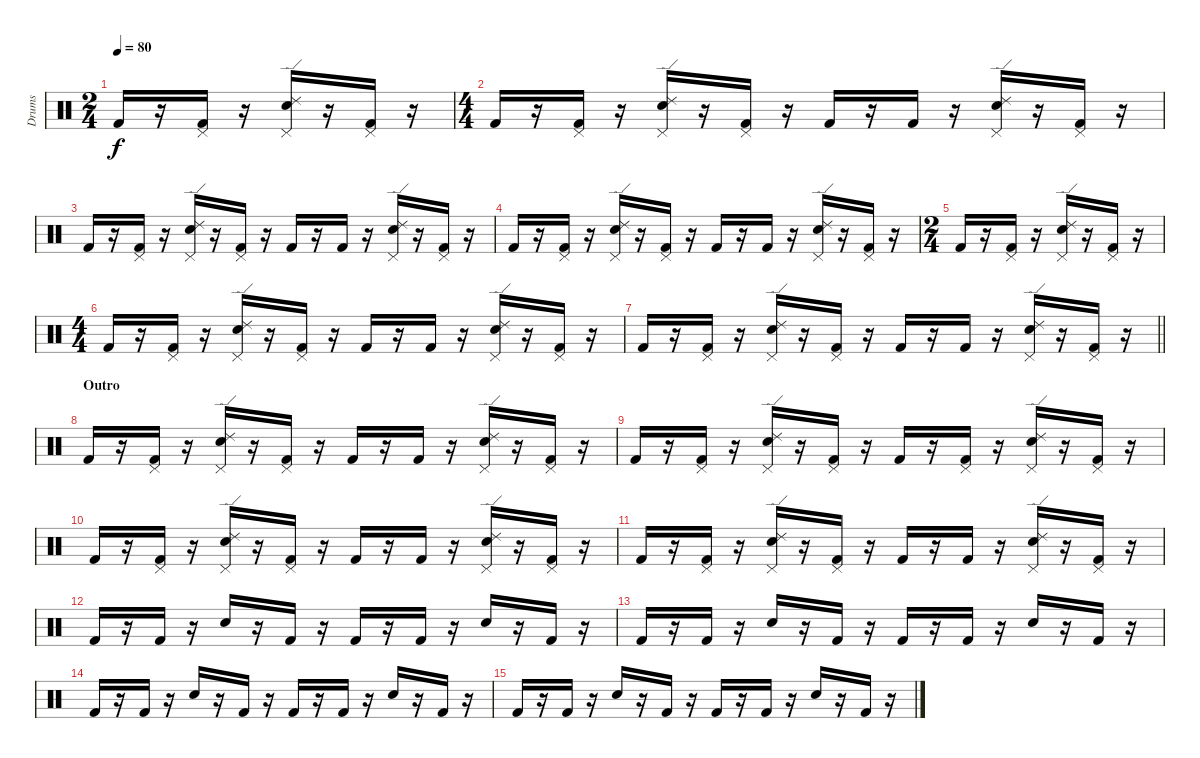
\track ("Drums" "Drums") {instrument percussion}
\staff {score}
\articulation defaults
\ts (2 4)
\tempo 80
\clef neutral
\ks c "Kick (hit) 2".16{dy f}
r.16 ("Pedal Hi-Hat (hit)" "Kick (hit) 2").16 r.16 ("Ride (edge) 2" "Pedal Hi-Hat (hit)" "Snare (hit) 2").16 r.16 ("Pedal Hi-Hat (hit)" "Kick (hit) 2").16 r.16 |
\ts (4 4)
"Kick (hit) 2".16 r.16 ("Pedal Hi-Hat (hit)" "Kick (hit) 2").16 r.16 ("Ride (edge) 2" "Pedal Hi-Hat (hit)" "Snare (hit) 2").16 r.16 ("Pedal Hi-Hat (hit)" "Kick (hit) 2").16 r.16 "Kick (hit) 2".16 r.16 "Kick (hit) 2".16 r.16 ("Ride (edge) 2" "Pedal Hi-Hat (hit)" "Snare (hit) 2").16 r.16 ("Pedal Hi-Hat (hit)" "Kick (hit) 2").16 r.16 |
"Kick (hit) 2".16 r.16 ("Pedal Hi-Hat (hit)" "Kick (hit) 2").16 r.16 ("Ride (edge) 2" "Pedal Hi-Hat (hit)" "Snare (hit) 2").16 r.16 ("Pedal Hi-Hat (hit)" "Kick (hit) 2").16 r.16 "Kick (hit) 2".16 r.16 "Kick (hit) 2".16 r.16 ("Ride (edge) 2" "Pedal Hi-Hat (hit)" "Snare (hit) 2").16 r.16 ("Pedal Hi-Hat (hit)" "Kick (hit) 2").16 r.16 |
"Kick (hit) 2".16 r.16 ("Pedal Hi-Hat (hit)" "Kick (hit) 2").16 r.16 ("Ride (edge) 2" "Pedal Hi-Hat (hit)" "Snare (hit) 2").16 r.16 ("Pedal Hi-Hat (hit)" "Kick (hit) 2").16 r.16 "Kick (hit) 2".16 r.16 "Kick (hit) 2".16 r.16 ("Ride (edge) 2" "Pedal Hi-Hat (hit)" "Snare (hit) 2").16 r.16 ("Pedal Hi-Hat (hit)" "Kick (hit) 2").16 r.16 |
\ts (2 4)
"Kick (hit) 2".16 r.16 ("Pedal Hi-Hat (hit)" "Kick (hit) 2").16 r.16 ("Ride (edge) 2" "Pedal Hi-Hat (hit)" "Snare (hit) 2").16 r.16 ("Pedal Hi-Hat (hit)" "Kick (hit) 2").16 r.16 |
\ts (4 4)
"Kick (hit) 2".16 r.16 ("Pedal Hi-Hat (hit)" "Kick (hit) 2").16 r.16 ("Ride (edge) 2" "Pedal Hi-Hat (hit)" "Snare (hit) 2").16 r.16 ("Pedal Hi-Hat (hit)" "Kick (hit) 2").16 r.16 "Kick (hit) 2".16 r.16 "Kick (hit) 2".16 r.16 ("Ride (edge) 2" "Pedal Hi-Hat (hit)" "Snare (hit) 2").16 r.16 ("Pedal Hi-Hat (hit)" "Kick (hit) 2").16 r.16 |
\barLineRight lightlight "Kick (hit) 2".16
r.16 ("Pedal Hi-Hat (hit)" "Kick (hit) 2").16 r.16 ("Ride (edge) 2" "Pedal Hi-Hat (hit)" "Snare (hit) 2").16 r.16 ("Pedal Hi-Hat (hit)" "Kick (hit) 2").16 r.16 "Kick (hit) 2".16 r.16 "Kick (hit) 2".16 r.16 ("Ride (edge) 2" "Pedal Hi-Hat (hit)" "Snare (hit) 2").16 r.16 ("Pedal Hi-Hat (hit)" "Kick (hit) 2").16 r.16 |
\section ("" "Outro")
"Kick (hit) 2".16 r.16 ("Pedal Hi-Hat (hit)" "Kick (hit) 2").16 r.16 ("Ride (edge) 2" "Pedal Hi-Hat (hit)" "Snare (hit) 2").16 r.16 ("Pedal Hi-Hat (hit)" "Kick (hit) 2").16 r.16 "Kick (hit) 2".16 r.16 "Kick (hit) 2".16 r.16 ("Ride (edge) 2" "Pedal Hi-Hat (hit)" "Snare (hit) 2").16 r.16 ("Pedal Hi-Hat (hit)" "Kick (hit) 2").16 r.16 |
"Kick (hit) 2".16 r.16 ("Pedal Hi-Hat (hit)" "Kick (hit) 2").16 r.16 ("Ride (edge) 2" "Pedal Hi-Hat (hit)" "Snare (hit) 2").16 r.16 ("Pedal Hi-Hat (hit)" "Kick (hit) 2").16 r.16 "Kick (hit) 2".16 r.16 ("Pedal Hi-Hat (hit)" "Kick (hit) 2").16 r.16 ("Ride (edge) 2" "Pedal Hi-Hat (hit)" "Snare (hit) 2").16 r.16 ("Pedal Hi-Hat (hit)" "Kick (hit) 2").16 r.16 |
"Kick (hit) 2".16 r.16 ("Pedal Hi-Hat (hit)" "Kick (hit) 2").16 r.16 ("Ride (edge) 2" "Pedal Hi-Hat (hit)" "Snare (hit) 2").16 r.16 ("Pedal Hi-Hat (hit)" "Kick (hit) 2").16 r.16 "Kick (hit) 2".16 r.16 "Kick (hit) 2".16 r.16 ("Ride (edge) 2" "Pedal Hi-Hat (hit)" "Snare (hit) 2").16 r.16 ("Pedal Hi-Hat (hit)" "Kick (hit) 2").16 r.16 |
"Kick (hit) 2".16 r.16 ("Pedal Hi-Hat (hit)" "Kick (hit) 2").16 r.16 ("Ride (edge) 2" "Pedal Hi-Hat (hit)" "Snare (hit) 2").16 r.16 ("Pedal Hi-Hat (hit)" "Kick (hit) 2").16 r.16 "Kick (hit) 2".16 r.16 "Kick (hit) 2".16 r.16 ("Ride (edge) 2" "Pedal Hi-Hat (hit)" "Snare (hit) 2").16 r.16 ("Pedal Hi-Hat (hit)" "Kick (hit) 2").16 r.16 |
"Kick (hit) 2".16{volume 0} r.16 "Kick (hit) 2".16 r.16 "Snare (hit) 2".16 r.16 "Kick (hit) 2".16 r.16 "Kick (hit) 2".16 r.16 "Kick (hit) 2".16 r.16 "Snare (hit) 2".16 r.16 "Kick (hit) 2".16 r.16 |
"Kick (hit) 2".16 r.16 "Kick (hit) 2".16 r.16 "Snare (hit) 2".16 r.16 "Kick (hit) 2".16 r.16 "Kick (hit) 2".16 r.16 "Kick (hit) 2".16 r.16 "Snare (hit) 2".16 r.16 "Kick (hit) 2".16 r.16 |
"Kick (hit) 2".16 r.16 "Kick (hit) 2".16 r.16 "Snare (hit) 2".16 r.16 "Kick (hit) 2".16 r.16 "Kick (hit) 2".16 r.16 "Kick (hit) 2".16 r.16 "Snare (hit) 2".16 r.16 "Kick (hit) 2".16 r.16 |
"Kick (hit) 2".16 r.16 "Kick (hit) 2".16 r.16 "Snare (hit) 2".16 r.16 "Kick (hit) 2".16 r.16 "Kick (hit) 2".16 r.16 "Kick (hit) 2".16 r.16 "Snare (hit) 2".16 r.16 "Kick (hit) 2".16 r.16
